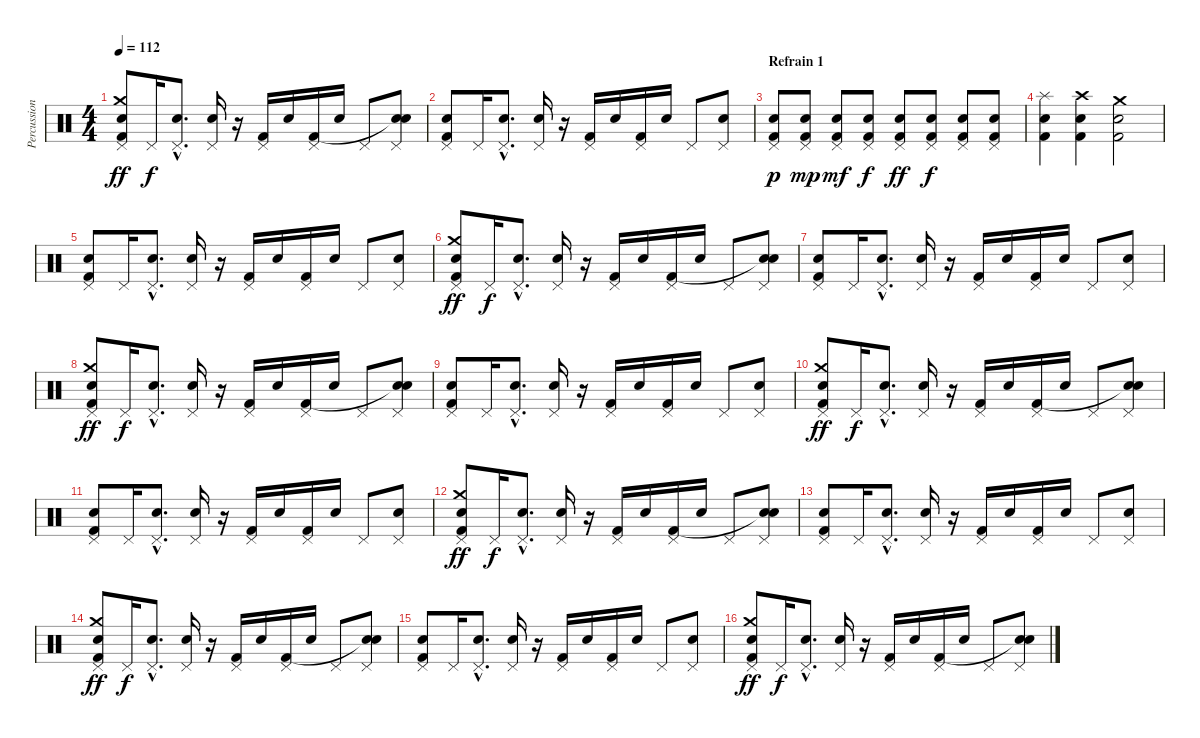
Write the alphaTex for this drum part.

\track ("Percussions" "Percussion") {instrument percussion}
\staff {score}
\articulation defaults
\ts (4 4)
\tempo 112
\clef neutral
\ks c
("Pedal Hi-Hat (hit)" "Crash medium (hit)" "Kick (hit) 2" "Electric Snare (hit)").8{dy ff} "Pedal Hi-Hat (hit)".16{dy f} ("Pedal Hi-Hat (hit)"{hac} "Electric Snare (hit)"{hac}).8{d} ("Pedal Hi-Hat (hit)" "Electric Snare (hit)").16 r.16 ("Pedal Hi-Hat (hit)" "Kick (hit) 2").16 "Electric Snare (hit)".16 ("Pedal Hi-Hat (hit)" "Kick (hit) 2").16 "Electric Snare (hit)".16 "Pedal Hi-Hat (hit)".8 ("Pedal Hi-Hat (hit)" "Snare (hit)"{t} "Electric Snare (hit)").8 |
("Pedal Hi-Hat (hit)" "Kick (hit) 2" "Electric Snare (hit)").8 "Pedal Hi-Hat (hit)".16 ("Pedal Hi-Hat (hit)"{hac} "Electric Snare (hit)"{hac}).8{d} ("Pedal Hi-Hat (hit)" "Electric Snare (hit)").16 r.16 ("Pedal Hi-Hat (hit)" "Kick (hit) 2").16 "Electric Snare (hit)".16 ("Pedal Hi-Hat (hit)" "Kick (hit) 2").16 "Electric Snare (hit)".16 "Pedal Hi-Hat (hit)".8 ("Pedal Hi-Hat (hit)" "Electric Snare (hit)").8 |
\section ("" "Refrain 1")
("Pedal Hi-Hat (hit)" "Electric Snare (hit)" "Kick (hit) 2").8{dy p} ("Pedal Hi-Hat (hit)" "Electric Snare (hit)" "Kick (hit) 2").8{dy mp} ("Pedal Hi-Hat (hit)" "Electric Snare (hit)" "Kick (hit) 2").8{dy mf} ("Pedal Hi-Hat (hit)" "Electric Snare (hit)" "Kick (hit) 2").8{dy f} ("Pedal Hi-Hat (hit)" "Electric Snare (hit)" "Kick (hit) 2").8{dy ff} ("Pedal Hi-Hat (hit)" "Electric Snare (hit)" "Kick (hit) 2").8{dy f} ("Pedal Hi-Hat (hit)" "Electric Snare (hit)" "Kick (hit) 2").8 ("Pedal Hi-Hat (hit)" "Electric Snare (hit)" "Kick (hit) 2").8 |
("Splash (hit)" "Electric Snare (hit)" "Kick (hit) 2").4 ("Crash high (hit)" "Electric Snare (hit)" "Kick (hit) 2").4 ("Crash medium (hit)" "Electric Snare (hit)" "Kick (hit) 2").2 |
("Pedal Hi-Hat (hit)" "Kick (hit) 2" "Electric Snare (hit)").8 "Pedal Hi-Hat (hit)".16 ("Pedal Hi-Hat (hit)"{hac} "Electric Snare (hit)"{hac}).8{d} ("Pedal Hi-Hat (hit)" "Electric Snare (hit)").16 r.16 ("Pedal Hi-Hat (hit)" "Kick (hit) 2").16 "Electric Snare (hit)".16 ("Pedal Hi-Hat (hit)" "Kick (hit) 2").16 "Electric Snare (hit)".16 "Pedal Hi-Hat (hit)".8 ("Pedal Hi-Hat (hit)" "Electric Snare (hit)").8 |
("Pedal Hi-Hat (hit)" "Crash medium (hit)" "Kick (hit) 2" "Electric Snare (hit)").8{dy ff} "Pedal Hi-Hat (hit)".16{dy f} ("Pedal Hi-Hat (hit)"{hac} "Electric Snare (hit)"{hac}).8{d} ("Pedal Hi-Hat (hit)" "Electric Snare (hit)").16 r.16 ("Pedal Hi-Hat (hit)" "Kick (hit) 2").16 "Electric Snare (hit)".16 ("Pedal Hi-Hat (hit)" "Kick (hit) 2").16 "Electric Snare (hit)".16 "Pedal Hi-Hat (hit)".8 ("Pedal Hi-Hat (hit)" "Snare (hit)"{t} "Electric Snare (hit)").8 |
("Pedal Hi-Hat (hit)" "Kick (hit) 2" "Electric Snare (hit)").8 "Pedal Hi-Hat (hit)".16 ("Pedal Hi-Hat (hit)"{hac} "Electric Snare (hit)"{hac}).8{d} ("Pedal Hi-Hat (hit)" "Electric Snare (hit)").16 r.16 ("Pedal Hi-Hat (hit)" "Kick (hit) 2").16 "Electric Snare (hit)".16 ("Pedal Hi-Hat (hit)" "Kick (hit) 2").16 "Electric Snare (hit)".16 "Pedal Hi-Hat (hit)".8 ("Pedal Hi-Hat (hit)" "Electric Snare (hit)").8 |
("Pedal Hi-Hat (hit)" "Crash medium (hit)" "Kick (hit) 2" "Electric Snare (hit)").8{dy ff} "Pedal Hi-Hat (hit)".16{dy f} ("Pedal Hi-Hat (hit)"{hac} "Electric Snare (hit)"{hac}).8{d} ("Pedal Hi-Hat (hit)" "Electric Snare (hit)").16 r.16 ("Pedal Hi-Hat (hit)" "Kick (hit) 2").16 "Electric Snare (hit)".16 ("Pedal Hi-Hat (hit)" "Kick (hit) 2").16 "Electric Snare (hit)".16 "Pedal Hi-Hat (hit)".8 ("Pedal Hi-Hat (hit)" "Snare (hit)"{t} "Electric Snare (hit)").8 |
("Pedal Hi-Hat (hit)" "Kick (hit) 2" "Electric Snare (hit)").8 "Pedal Hi-Hat (hit)".16 ("Pedal Hi-Hat (hit)"{hac} "Electric Snare (hit)"{hac}).8{d} ("Pedal Hi-Hat (hit)" "Electric Snare (hit)").16 r.16 ("Pedal Hi-Hat (hit)" "Kick (hit) 2").16 "Electric Snare (hit)".16 ("Pedal Hi-Hat (hit)" "Kick (hit) 2").16 "Electric Snare (hit)".16 "Pedal Hi-Hat (hit)".8 ("Pedal Hi-Hat (hit)" "Electric Snare (hit)").8 |
("Pedal Hi-Hat (hit)" "Crash medium (hit)" "Kick (hit) 2" "Electric Snare (hit)").8{dy ff} "Pedal Hi-Hat (hit)".16{dy f} ("Pedal Hi-Hat (hit)"{hac} "Electric Snare (hit)"{hac}).8{d} ("Pedal Hi-Hat (hit)" "Electric Snare (hit)").16 r.16 ("Pedal Hi-Hat (hit)" "Kick (hit) 2").16 "Electric Snare (hit)".16 ("Pedal Hi-Hat (hit)" "Kick (hit) 2").16 "Electric Snare (hit)".16 "Pedal Hi-Hat (hit)".8 ("Pedal Hi-Hat (hit)" "Snare (hit)"{t} "Electric Snare (hit)").8 |
("Pedal Hi-Hat (hit)" "Kick (hit) 2" "Electric Snare (hit)").8 "Pedal Hi-Hat (hit)".16 ("Pedal Hi-Hat (hit)"{hac} "Electric Snare (hit)"{hac}).8{d} ("Pedal Hi-Hat (hit)" "Electric Snare (hit)").16 r.16 ("Pedal Hi-Hat (hit)" "Kick (hit) 2").16 "Electric Snare (hit)".16 ("Pedal Hi-Hat (hit)" "Kick (hit) 2").16 "Electric Snare (hit)".16 "Pedal Hi-Hat (hit)".8 ("Pedal Hi-Hat (hit)" "Electric Snare (hit)").8 |
("Pedal Hi-Hat (hit)" "Crash medium (hit)" "Kick (hit) 2" "Electric Snare (hit)").8{dy ff} "Pedal Hi-Hat (hit)".16{dy f} ("Pedal Hi-Hat (hit)"{hac} "Electric Snare (hit)"{hac}).8{d} ("Pedal Hi-Hat (hit)" "Electric Snare (hit)").16 r.16 ("Pedal Hi-Hat (hit)" "Kick (hit) 2").16 "Electric Snare (hit)".16 ("Pedal Hi-Hat (hit)" "Kick (hit) 2").16 "Electric Snare (hit)".16 "Pedal Hi-Hat (hit)".8 ("Pedal Hi-Hat (hit)" "Snare (hit)"{t} "Electric Snare (hit)").8 |
("Pedal Hi-Hat (hit)" "Kick (hit) 2" "Electric Snare (hit)").8 "Pedal Hi-Hat (hit)".16 ("Pedal Hi-Hat (hit)"{hac} "Electric Snare (hit)"{hac}).8{d} ("Pedal Hi-Hat (hit)" "Electric Snare (hit)").16 r.16 ("Pedal Hi-Hat (hit)" "Kick (hit) 2").16 "Electric Snare (hit)".16 ("Pedal Hi-Hat (hit)" "Kick (hit) 2").16 "Electric Snare (hit)".16 "Pedal Hi-Hat (hit)".8 ("Pedal Hi-Hat (hit)" "Electric Snare (hit)").8 |
("Pedal Hi-Hat (hit)" "Crash medium (hit)" "Kick (hit) 2" "Electric Snare (hit)").8{dy ff} "Pedal Hi-Hat (hit)".16{dy f} ("Pedal Hi-Hat (hit)"{hac} "Electric Snare (hit)"{hac}).8{d} ("Pedal Hi-Hat (hit)" "Electric Snare (hit)").16 r.16 ("Pedal Hi-Hat (hit)" "Kick (hit) 2").16 "Electric Snare (hit)".16 ("Pedal Hi-Hat (hit)" "Kick (hit) 2").16 "Electric Snare (hit)".16 "Pedal Hi-Hat (hit)".8 ("Pedal Hi-Hat (hit)" "Snare (hit)"{t} "Electric Snare (hit)").8 |
("Pedal Hi-Hat (hit)" "Kick (hit) 2" "Electric Snare (hit)").8 "Pedal Hi-Hat (hit)".16 ("Pedal Hi-Hat (hit)"{hac} "Electric Snare (hit)"{hac}).8{d} ("Pedal Hi-Hat (hit)" "Electric Snare (hit)").16 r.16 ("Pedal Hi-Hat (hit)" "Kick (hit) 2").16 "Electric Snare (hit)".16 ("Pedal Hi-Hat (hit)" "Kick (hit) 2").16 "Electric Snare (hit)".16 "Pedal Hi-Hat (hit)".8 ("Pedal Hi-Hat (hit)" "Electric Snare (hit)").8 |
("Pedal Hi-Hat (hit)" "Crash medium (hit)" "Kick (hit) 2" "Electric Snare (hit)").8{dy ff} "Pedal Hi-Hat (hit)".16{dy f} ("Pedal Hi-Hat (hit)"{hac} "Electric Snare (hit)"{hac}).8{d} ("Pedal Hi-Hat (hit)" "Electric Snare (hit)").16 r.16 ("Pedal Hi-Hat (hit)" "Kick (hit) 2").16 "Electric Snare (hit)".16 ("Pedal Hi-Hat (hit)" "Kick (hit) 2").16 "Electric Snare (hit)".16 "Pedal Hi-Hat (hit)".8 ("Pedal Hi-Hat (hit)" "Snare (hit)"{t} "Electric Snare (hit)").8
